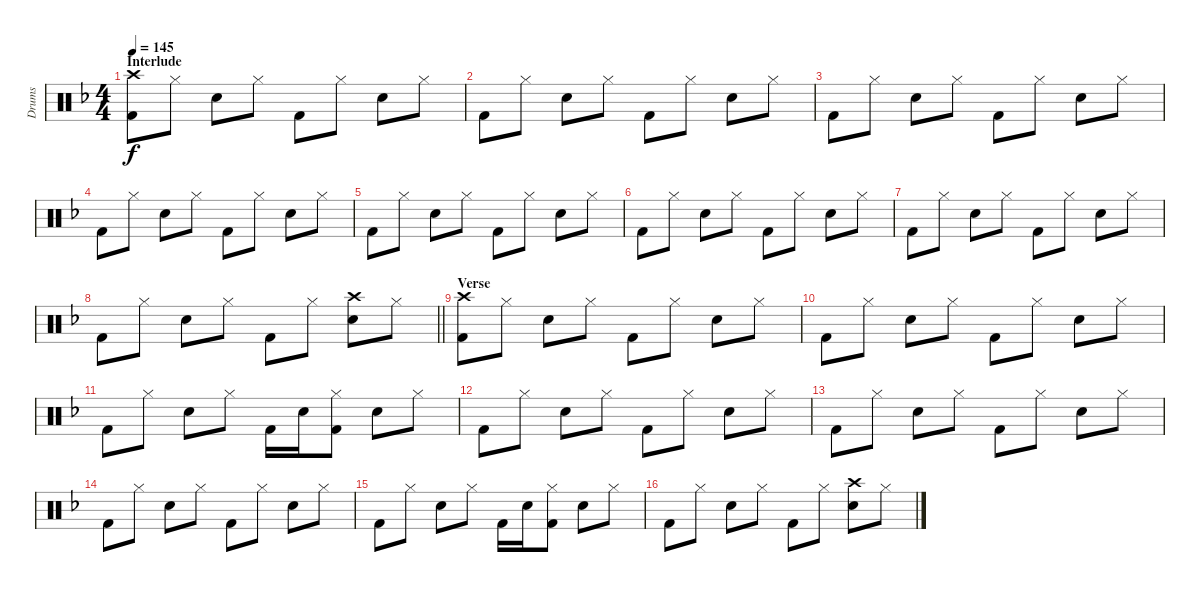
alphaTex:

\track ("Drums" "Drums") {instrument percussion}
\staff {score}
\articulation defaults
\ts (4 4)
\section ("" "Interlude")
\tempo 145
\clef neutral
\ks f
("Crash high (hit)" "Kick (hit) 2").8{dy f} "Hi-Hat (closed)".8 "Snare (hit) 2".8 "Hi-Hat (closed)".8 "Kick (hit) 2".8 "Hi-Hat (closed)".8 "Snare (hit) 2".8 "Hi-Hat (closed)".8 |
"Kick (hit) 2".8 "Hi-Hat (closed)".8 "Snare (hit) 2".8 "Hi-Hat (closed)".8 "Kick (hit) 2".8 "Hi-Hat (closed)".8 "Snare (hit) 2".8 "Hi-Hat (closed)".8 |
"Kick (hit) 2".8 "Hi-Hat (closed)".8 "Snare (hit) 2".8 "Hi-Hat (closed)".8 "Kick (hit) 2".8 "Hi-Hat (closed)".8 "Snare (hit) 2".8 "Hi-Hat (closed)".8 |
"Kick (hit) 2".8 "Hi-Hat (closed)".8 "Snare (hit) 2".8 "Hi-Hat (closed)".8 "Kick (hit) 2".8 "Hi-Hat (closed)".8 "Snare (hit) 2".8 "Hi-Hat (closed)".8 |
"Kick (hit) 2".8 "Hi-Hat (closed)".8 "Snare (hit) 2".8 "Hi-Hat (closed)".8 "Kick (hit) 2".8 "Hi-Hat (closed)".8 "Snare (hit) 2".8 "Hi-Hat (closed)".8 |
"Kick (hit) 2".8 "Hi-Hat (closed)".8 "Snare (hit) 2".8 "Hi-Hat (closed)".8 "Kick (hit) 2".8 "Hi-Hat (closed)".8 "Snare (hit) 2".8 "Hi-Hat (closed)".8 |
"Kick (hit) 2".8 "Hi-Hat (closed)".8 "Snare (hit) 2".8 "Hi-Hat (closed)".8 "Kick (hit) 2".8 "Hi-Hat (closed)".8 "Snare (hit) 2".8 "Hi-Hat (closed)".8 |
\barLineRight lightlight "Kick (hit) 2".8 "Hi-Hat (closed)".8 "Snare (hit) 2".8 "Hi-Hat (closed)".8 "Kick (hit) 2".8 "Hi-Hat (closed)".8
("Snare (hit) 2" "Crash high (hit)").8 "Hi-Hat (closed)".8 |
\section ("" "Verse")
("Crash high (hit)" "Kick (hit) 2").8 "Hi-Hat (closed)".8 "Snare (hit) 2".8 "Hi-Hat (closed)".8 "Kick (hit) 2".8 "Hi-Hat (closed)".8 "Snare (hit) 2".8 "Hi-Hat (closed)".8 |
"Kick (hit) 2".8 "Hi-Hat (closed)".8 "Snare (hit) 2".8 "Hi-Hat (closed)".8 "Kick (hit) 2".8 "Hi-Hat (closed)".8 "Snare (hit) 2".8 "Hi-Hat (closed)".8 |
"Kick (hit) 2".8 "Hi-Hat (closed)".8 "Snare (hit) 2".8 "Hi-Hat (closed)".8 "Kick (hit) 2".16 "Snare (hit) 2".16 ("Kick (hit) 2" "Hi-Hat (closed)").8 "Snare (hit) 2".8 "Hi-Hat (closed)".8 |
"Kick (hit) 2".8 "Hi-Hat (closed)".8 "Snare (hit) 2".8 "Hi-Hat (closed)".8 "Kick (hit) 2".8 "Hi-Hat (closed)".8 "Snare (hit) 2".8 "Hi-Hat (closed)".8 |
"Kick (hit) 2".8 "Hi-Hat (closed)".8 "Snare (hit) 2".8 "Hi-Hat (closed)".8 "Kick (hit) 2".8 "Hi-Hat (closed)".8 "Snare (hit) 2".8 "Hi-Hat (closed)".8 |
"Kick (hit) 2".8 "Hi-Hat (closed)".8 "Snare (hit) 2".8 "Hi-Hat (closed)".8 "Kick (hit) 2".8 "Hi-Hat (closed)".8 "Snare (hit) 2".8 "Hi-Hat (closed)".8 |
"Kick (hit) 2".8 "Hi-Hat (closed)".8 "Snare (hit) 2".8 "Hi-Hat (closed)".8 "Kick (hit) 2".16 "Snare (hit) 2".16 ("Kick (hit) 2" "Hi-Hat (closed)").8 "Snare (hit) 2".8 "Hi-Hat (closed)".8 |
"Kick (hit) 2".8 "Hi-Hat (closed)".8 "Snare (hit) 2".8 "Hi-Hat (closed)".8 "Kick (hit) 2".8 "Hi-Hat (closed)".8 ("Snare (hit) 2" "Crash high (hit)").8 "Hi-Hat (closed)".8
